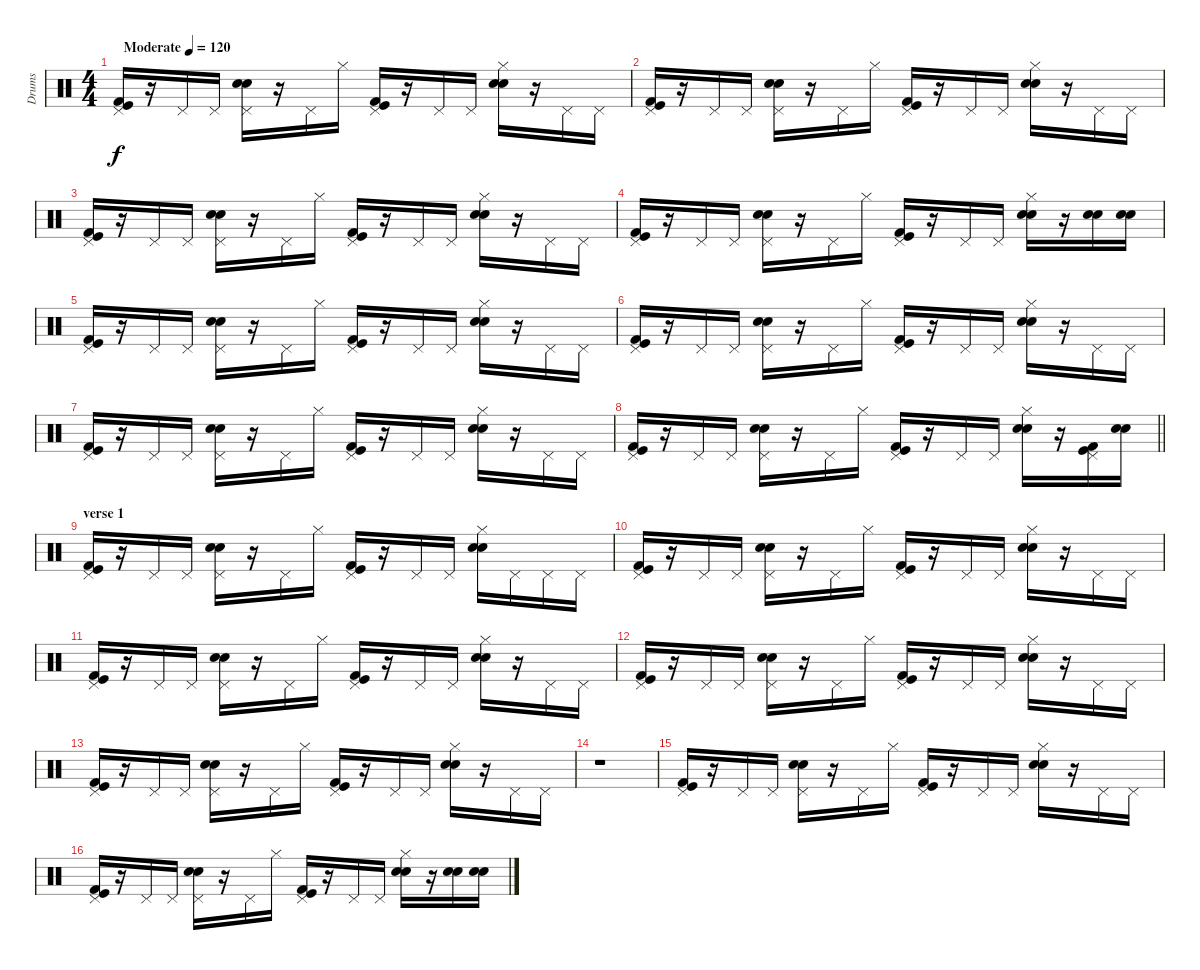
\track ("Drums" "Drums") {instrument percussion}
\staff {score}
\articulation defaults
\ts (4 4)
\tempo (120 "Moderate")
\clef neutral
\ks c
("Pedal Hi-Hat (hit)" "Kick (hit)" "Kick (hit) 2").16{dy f} r.16 "Pedal Hi-Hat (hit)".16 "Pedal Hi-Hat (hit)".16 ("Pedal Hi-Hat (hit)" "Electric Snare (hit)" "Electric Snare (hit)").16 r.16 "Pedal Hi-Hat (hit)".16 "Hi-Hat (closed)".16 ("Pedal Hi-Hat (hit)" "Kick (hit)" "Kick (hit) 2").16 r.16 "Pedal Hi-Hat (hit)".16 "Pedal Hi-Hat (hit)".16 ("Hi-Hat (closed)" "Electric Snare (hit)" "Electric Snare (hit)").16 r.16 "Pedal Hi-Hat (hit)".16 "Pedal Hi-Hat (hit)".16 |
("Pedal Hi-Hat (hit)" "Kick (hit)" "Kick (hit) 2").16 r.16 "Pedal Hi-Hat (hit)".16 "Pedal Hi-Hat (hit)".16 ("Pedal Hi-Hat (hit)" "Electric Snare (hit)" "Electric Snare (hit)").16 r.16 "Pedal Hi-Hat (hit)".16 "Hi-Hat (closed)".16 ("Pedal Hi-Hat (hit)" "Kick (hit)" "Kick (hit) 2").16 r.16 "Pedal Hi-Hat (hit)".16 "Pedal Hi-Hat (hit)".16 ("Hi-Hat (closed)" "Electric Snare (hit)" "Electric Snare (hit)").16 r.16 "Pedal Hi-Hat (hit)".16 "Pedal Hi-Hat (hit)".16 |
("Pedal Hi-Hat (hit)" "Kick (hit)" "Kick (hit) 2").16 r.16 "Pedal Hi-Hat (hit)".16 "Pedal Hi-Hat (hit)".16 ("Pedal Hi-Hat (hit)" "Electric Snare (hit)" "Electric Snare (hit)").16 r.16 "Pedal Hi-Hat (hit)".16 "Hi-Hat (closed)".16 ("Pedal Hi-Hat (hit)" "Kick (hit)" "Kick (hit) 2").16 r.16 "Pedal Hi-Hat (hit)".16 "Pedal Hi-Hat (hit)".16 ("Hi-Hat (closed)" "Electric Snare (hit)" "Electric Snare (hit)").16 r.16 "Pedal Hi-Hat (hit)".16 "Pedal Hi-Hat (hit)".16 |
("Pedal Hi-Hat (hit)" "Kick (hit)" "Kick (hit) 2").16 r.16 "Pedal Hi-Hat (hit)".16 "Pedal Hi-Hat (hit)".16 ("Pedal Hi-Hat (hit)" "Electric Snare (hit)" "Electric Snare (hit)").16 r.16 "Pedal Hi-Hat (hit)".16 "Hi-Hat (closed)".16 ("Pedal Hi-Hat (hit)" "Kick (hit)" "Kick (hit) 2").16 r.16 "Pedal Hi-Hat (hit)".16 "Pedal Hi-Hat (hit)".16 ("Hi-Hat (closed)" "Electric Snare (hit)" "Electric Snare (hit)").16 r.16 ("Electric Snare (hit)" "Electric Snare (hit)").16 ("Electric Snare (hit)" "Electric Snare (hit)").16 |
("Pedal Hi-Hat (hit)" "Kick (hit)" "Kick (hit) 2").16 r.16 "Pedal Hi-Hat (hit)".16 "Pedal Hi-Hat (hit)".16 ("Pedal Hi-Hat (hit)" "Electric Snare (hit)" "Electric Snare (hit)").16 r.16 "Pedal Hi-Hat (hit)".16 "Hi-Hat (closed)".16 ("Pedal Hi-Hat (hit)" "Kick (hit)" "Kick (hit) 2").16 r.16 "Pedal Hi-Hat (hit)".16 "Pedal Hi-Hat (hit)".16 ("Hi-Hat (closed)" "Electric Snare (hit)" "Electric Snare (hit)").16 r.16 "Pedal Hi-Hat (hit)".16 "Pedal Hi-Hat (hit)".16 |
("Pedal Hi-Hat (hit)" "Kick (hit)" "Kick (hit) 2").16 r.16 "Pedal Hi-Hat (hit)".16 "Pedal Hi-Hat (hit)".16 ("Pedal Hi-Hat (hit)" "Electric Snare (hit)" "Electric Snare (hit)").16 r.16 "Pedal Hi-Hat (hit)".16 "Hi-Hat (closed)".16 ("Pedal Hi-Hat (hit)" "Kick (hit)" "Kick (hit) 2").16 r.16 "Pedal Hi-Hat (hit)".16 "Pedal Hi-Hat (hit)".16 ("Hi-Hat (closed)" "Electric Snare (hit)" "Electric Snare (hit)").16 r.16 "Pedal Hi-Hat (hit)".16 "Pedal Hi-Hat (hit)".16 |
("Pedal Hi-Hat (hit)" "Kick (hit)" "Kick (hit) 2").16 r.16 "Pedal Hi-Hat (hit)".16 "Pedal Hi-Hat (hit)".16 ("Pedal Hi-Hat (hit)" "Electric Snare (hit)" "Electric Snare (hit)").16 r.16 "Pedal Hi-Hat (hit)".16 "Hi-Hat (closed)".16 ("Pedal Hi-Hat (hit)" "Kick (hit)" "Kick (hit) 2").16 r.16 "Pedal Hi-Hat (hit)".16 "Pedal Hi-Hat (hit)".16 ("Hi-Hat (closed)" "Electric Snare (hit)" "Electric Snare (hit)").16 r.16 "Pedal Hi-Hat (hit)".16 "Pedal Hi-Hat (hit)".16 |
\barLineRight lightlight
("Pedal Hi-Hat (hit)" "Kick (hit)" "Kick (hit) 2").16 r.16 "Pedal Hi-Hat (hit)".16 "Pedal Hi-Hat (hit)".16 ("Pedal Hi-Hat (hit)" "Electric Snare (hit)" "Electric Snare (hit)").16 r.16 "Pedal Hi-Hat (hit)".16 "Hi-Hat (closed)".16 ("Pedal Hi-Hat (hit)" "Kick (hit)" "Kick (hit) 2").16 r.16 "Pedal Hi-Hat (hit)".16 "Pedal Hi-Hat (hit)".16 ("Hi-Hat (closed)" "Electric Snare (hit)" "Electric Snare (hit)").16 r.16 ("Pedal Hi-Hat (hit)" "Kick (hit)" "Kick (hit) 2").16 ("Electric Snare (hit)" "Electric Snare (hit)").16 |
\section ("" "verse 1")
("Pedal Hi-Hat (hit)" "Kick (hit)" "Kick (hit) 2").16 r.16 "Pedal Hi-Hat (hit)".16 "Pedal Hi-Hat (hit)".16 ("Pedal Hi-Hat (hit)" "Electric Snare (hit)" "Electric Snare (hit)").16 r.16 "Pedal Hi-Hat (hit)".16 "Hi-Hat (closed)".16 ("Pedal Hi-Hat (hit)" "Kick (hit)" "Kick (hit) 2").16 r.16 "Pedal Hi-Hat (hit)".16 "Pedal Hi-Hat (hit)".16 ("Hi-Hat (closed)" "Electric Snare (hit)" "Electric Snare (hit)").16 "Pedal Hi-Hat (hit)".16 "Pedal Hi-Hat (hit)".16 "Pedal Hi-Hat (hit)".16 |
("Pedal Hi-Hat (hit)" "Kick (hit)" "Kick (hit) 2").16 r.16 "Pedal Hi-Hat (hit)".16 "Pedal Hi-Hat (hit)".16 ("Pedal Hi-Hat (hit)" "Electric Snare (hit)" "Electric Snare (hit)").16 r.16 "Pedal Hi-Hat (hit)".16 "Hi-Hat (closed)".16 ("Pedal Hi-Hat (hit)" "Kick (hit)" "Kick (hit) 2").16 r.16 "Pedal Hi-Hat (hit)".16 "Pedal Hi-Hat (hit)".16 ("Hi-Hat (closed)" "Electric Snare (hit)" "Electric Snare (hit)").16 r.16 "Pedal Hi-Hat (hit)".16 "Pedal Hi-Hat (hit)".16 |
("Pedal Hi-Hat (hit)" "Kick (hit)" "Kick (hit) 2").16 r.16 "Pedal Hi-Hat (hit)".16 "Pedal Hi-Hat (hit)".16 ("Pedal Hi-Hat (hit)" "Electric Snare (hit)" "Electric Snare (hit)").16 r.16 "Pedal Hi-Hat (hit)".16 "Hi-Hat (closed)".16 ("Pedal Hi-Hat (hit)" "Kick (hit)" "Kick (hit) 2").16 r.16 "Pedal Hi-Hat (hit)".16 "Pedal Hi-Hat (hit)".16 ("Hi-Hat (closed)" "Electric Snare (hit)" "Electric Snare (hit)").16 r.16 "Pedal Hi-Hat (hit)".16 "Pedal Hi-Hat (hit)".16 |
("Pedal Hi-Hat (hit)" "Kick (hit)" "Kick (hit) 2").16 r.16 "Pedal Hi-Hat (hit)".16 "Pedal Hi-Hat (hit)".16 ("Pedal Hi-Hat (hit)" "Electric Snare (hit)" "Electric Snare (hit)").16 r.16 "Pedal Hi-Hat (hit)".16 "Hi-Hat (closed)".16 ("Pedal Hi-Hat (hit)" "Kick (hit)" "Kick (hit) 2").16 r.16 "Pedal Hi-Hat (hit)".16 "Pedal Hi-Hat (hit)".16 ("Hi-Hat (closed)" "Electric Snare (hit)" "Electric Snare (hit)").16 r.16 "Pedal Hi-Hat (hit)".16 "Pedal Hi-Hat (hit)".16 |
("Pedal Hi-Hat (hit)" "Kick (hit)" "Kick (hit) 2").16 r.16 "Pedal Hi-Hat (hit)".16 "Pedal Hi-Hat (hit)".16 ("Pedal Hi-Hat (hit)" "Electric Snare (hit)" "Electric Snare (hit)").16 r.16 "Pedal Hi-Hat (hit)".16 "Hi-Hat (closed)".16 ("Pedal Hi-Hat (hit)" "Kick (hit)" "Kick (hit) 2").16 r.16 "Pedal Hi-Hat (hit)".16 "Pedal Hi-Hat (hit)".16 ("Hi-Hat (closed)" "Electric Snare (hit)" "Electric Snare (hit)").16 r.16 "Pedal Hi-Hat (hit)".16 "Pedal Hi-Hat (hit)".16 |
r.1 |
("Pedal Hi-Hat (hit)" "Kick (hit)" "Kick (hit) 2").16 r.16 "Pedal Hi-Hat (hit)".16 "Pedal Hi-Hat (hit)".16 ("Pedal Hi-Hat (hit)" "Electric Snare (hit)" "Electric Snare (hit)").16 r.16 "Pedal Hi-Hat (hit)".16 "Hi-Hat (closed)".16 ("Pedal Hi-Hat (hit)" "Kick (hit)" "Kick (hit) 2").16 r.16 "Pedal Hi-Hat (hit)".16 "Pedal Hi-Hat (hit)".16 ("Hi-Hat (closed)" "Electric Snare (hit)" "Electric Snare (hit)").16 r.16 "Pedal Hi-Hat (hit)".16 "Pedal Hi-Hat (hit)".16 |
("Pedal Hi-Hat (hit)" "Kick (hit)" "Kick (hit) 2").16 r.16 "Pedal Hi-Hat (hit)".16 "Pedal Hi-Hat (hit)".16 ("Pedal Hi-Hat (hit)" "Electric Snare (hit)" "Electric Snare (hit)").16 r.16 "Pedal Hi-Hat (hit)".16 "Hi-Hat (closed)".16 ("Pedal Hi-Hat (hit)" "Kick (hit)" "Kick (hit) 2").16 r.16 "Pedal Hi-Hat (hit)".16 "Pedal Hi-Hat (hit)".16 ("Hi-Hat (closed)" "Electric Snare (hit)" "Electric Snare (hit)").16 r.16 ("Electric Snare (hit)" "Electric Snare (hit)").16 ("Electric Snare (hit)" "Electric Snare (hit)").16
